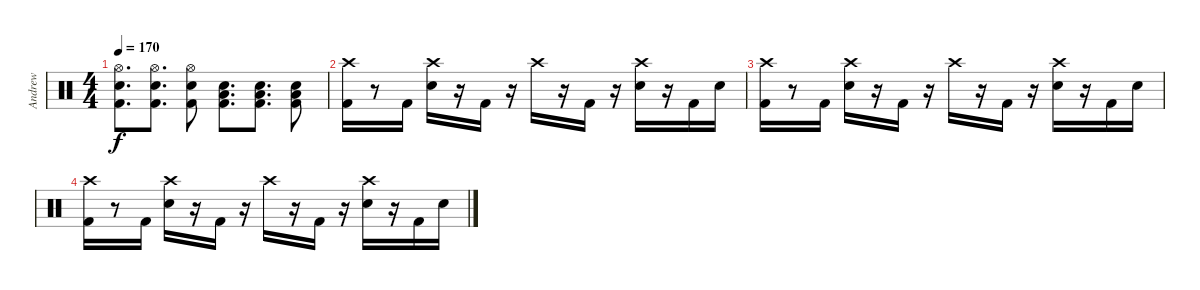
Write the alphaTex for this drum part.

\track ("Andrew" "Andrew") {instrument percussion}
\staff {score}
\articulation defaults
\ts (4 4)
\tempo 170
\clef neutral
\ks c
("Hi-Hat (open)" "Electric Snare (hit)" "Kick (hit) 2").8{d dy f} ("Hi-Hat (open)" "Electric Snare (hit)" "Kick (hit) 2").8{d} ("Hi-Hat (open)" "Electric Snare (hit)" "Kick (hit) 2").8 ("Low Floor Tom (hit)" "Electric Snare (hit)" "Kick (hit) 2").8{d} ("Low Floor Tom (hit)" "Electric Snare (hit)" "Kick (hit) 2").8{d} ("Low Floor Tom (hit)" "Electric Snare (hit)" "Kick (hit) 2").8 |
("Crash high (hit)" "Kick (hit) 2").16 r.8 "Kick (hit) 2".16 ("Crash high (hit)" "Electric Snare (hit)").16 r.16 "Kick (hit) 2".16 r.16 "Crash high (hit)".16 r.16 "Kick (hit) 2".16 r.16 ("Crash high (hit)" "Electric Snare (hit)").16 r.16 "Kick (hit) 2".16 "Electric Snare (hit)".16 |
("Crash high (hit)" "Kick (hit) 2").16 r.8 "Kick (hit) 2".16 ("Crash high (hit)" "Electric Snare (hit)").16 r.16 "Kick (hit) 2".16 r.16 "Crash high (hit)".16 r.16 "Kick (hit) 2".16 r.16 ("Crash high (hit)" "Electric Snare (hit)").16 r.16 "Kick (hit) 2".16 "Electric Snare (hit)".16 |
("Crash high (hit)" "Kick (hit) 2").16 r.8 "Kick (hit) 2".16 ("Crash high (hit)" "Electric Snare (hit)").16 r.16 "Kick (hit) 2".16 r.16 "Crash high (hit)".16 r.16 "Kick (hit) 2".16 r.16 ("Crash high (hit)" "Electric Snare (hit)").16 r.16 "Kick (hit) 2".16 "Electric Snare (hit)".16
